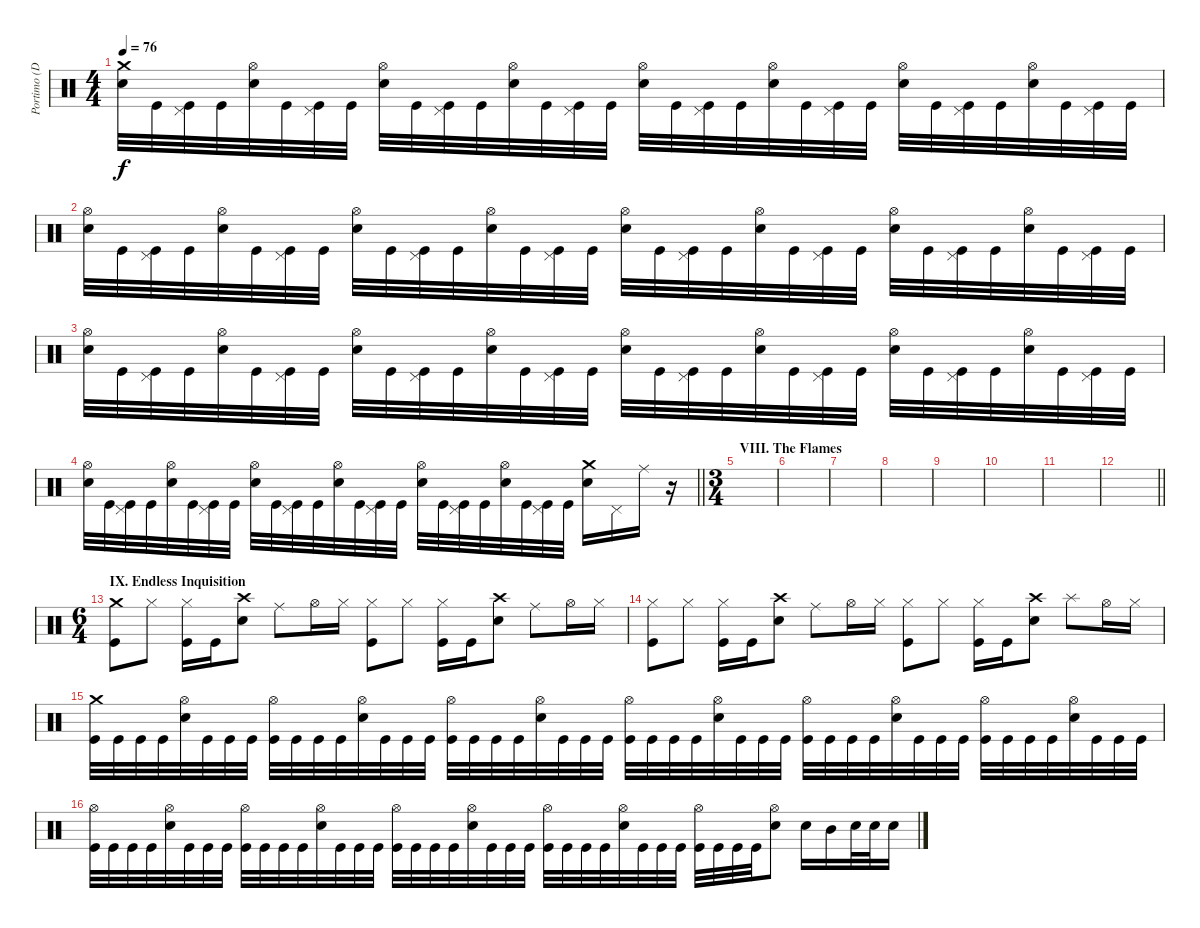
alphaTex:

\track ("Portimo (Drums)" "Portimo (D") {mute instrument percussion}
\staff {score}
\articulation defaults
\ts (4 4)
\tempo 76
\clef neutral
\ks c
("Crash medium (hit)" "Snare (hit) 2").32{dy f} "Kick (hit)".32 ("Pedal Hi-Hat (hit)" "Kick (hit)").32 "Kick (hit)".32 ("Hi-Hat (open)" "Snare (hit) 2").32 "Kick (hit)".32 ("Pedal Hi-Hat (hit)" "Kick (hit)").32 "Kick (hit)".32 ("Hi-Hat (open)" "Snare (hit) 2").32 "Kick (hit)".32 ("Pedal Hi-Hat (hit)" "Kick (hit)").32 "Kick (hit)".32 ("Hi-Hat (open)" "Snare (hit) 2").32 "Kick (hit)".32 ("Pedal Hi-Hat (hit)" "Kick (hit)").32 "Kick (hit)".32 ("Hi-Hat (open)" "Snare (hit) 2").32 "Kick (hit)".32 ("Pedal Hi-Hat (hit)" "Kick (hit)").32 "Kick (hit)".32 ("Hi-Hat (open)" "Snare (hit) 2").32 "Kick (hit)".32 ("Pedal Hi-Hat (hit)" "Kick (hit)").32 "Kick (hit)".32 ("Hi-Hat (open)" "Snare (hit) 2").32 "Kick (hit)".32 ("Pedal Hi-Hat (hit)" "Kick (hit)").32 "Kick (hit)".32 ("Hi-Hat (open)" "Snare (hit) 2").32 "Kick (hit)".32 ("Pedal Hi-Hat (hit)" "Kick (hit)").32 "Kick (hit)".32 |
("Hi-Hat (open)" "Snare (hit) 2").32 "Kick (hit)".32 ("Pedal Hi-Hat (hit)" "Kick (hit)").32 "Kick (hit)".32 ("Hi-Hat (open)" "Snare (hit) 2").32 "Kick (hit)".32 ("Pedal Hi-Hat (hit)" "Kick (hit)").32 "Kick (hit)".32 ("Hi-Hat (open)" "Snare (hit) 2").32 "Kick (hit)".32 ("Pedal Hi-Hat (hit)" "Kick (hit)").32 "Kick (hit)".32 ("Hi-Hat (open)" "Snare (hit) 2").32 "Kick (hit)".32 ("Pedal Hi-Hat (hit)" "Kick (hit)").32 "Kick (hit)".32 ("Hi-Hat (open)" "Snare (hit) 2").32 "Kick (hit)".32 ("Pedal Hi-Hat (hit)" "Kick (hit)").32 "Kick (hit)".32 ("Hi-Hat (open)" "Snare (hit) 2").32 "Kick (hit)".32 ("Pedal Hi-Hat (hit)" "Kick (hit)").32 "Kick (hit)".32 ("Hi-Hat (open)" "Snare (hit) 2").32 "Kick (hit)".32 ("Pedal Hi-Hat (hit)" "Kick (hit)").32 "Kick (hit)".32 ("Hi-Hat (open)" "Snare (hit) 2").32 "Kick (hit)".32 ("Pedal Hi-Hat (hit)" "Kick (hit)").32 "Kick (hit)".32 |
("Hi-Hat (open)" "Snare (hit) 2").32 "Kick (hit)".32 ("Pedal Hi-Hat (hit)" "Kick (hit)").32 "Kick (hit)".32 ("Hi-Hat (open)" "Snare (hit) 2").32 "Kick (hit)".32 ("Pedal Hi-Hat (hit)" "Kick (hit)").32 "Kick (hit)".32 ("Hi-Hat (open)" "Snare (hit) 2").32 "Kick (hit)".32 ("Pedal Hi-Hat (hit)" "Kick (hit)").32 "Kick (hit)".32 ("Hi-Hat (open)" "Snare (hit) 2").32 "Kick (hit)".32 ("Pedal Hi-Hat (hit)" "Kick (hit)").32 "Kick (hit)".32 ("Hi-Hat (open)" "Snare (hit) 2").32 "Kick (hit)".32 ("Pedal Hi-Hat (hit)" "Kick (hit)").32 "Kick (hit)".32 ("Hi-Hat (open)" "Snare (hit) 2").32 "Kick (hit)".32 ("Pedal Hi-Hat (hit)" "Kick (hit)").32 "Kick (hit)".32 ("Hi-Hat (open)" "Snare (hit) 2").32 "Kick (hit)".32 ("Pedal Hi-Hat (hit)" "Kick (hit)").32 "Kick (hit)".32 ("Hi-Hat (open)" "Snare (hit) 2").32 "Kick (hit)".32 ("Pedal Hi-Hat (hit)" "Kick (hit)").32 "Kick (hit)".32 |
\barLineRight lightlight
("Hi-Hat (open)" "Snare (hit) 2").32 "Kick (hit)".32 ("Pedal Hi-Hat (hit)" "Kick (hit)").32 "Kick (hit)".32 ("Hi-Hat (open)" "Snare (hit) 2").32 "Kick (hit)".32 ("Pedal Hi-Hat (hit)" "Kick (hit)").32 "Kick (hit)".32 ("Hi-Hat (open)" "Snare (hit) 2").32 "Kick (hit)".32 ("Pedal Hi-Hat (hit)" "Kick (hit)").32 "Kick (hit)".32 ("Hi-Hat (open)" "Snare (hit) 2").32 "Kick (hit)".32 ("Pedal Hi-Hat (hit)" "Kick (hit)").32 "Kick (hit)".32 ("Hi-Hat (open)" "Snare (hit) 2").32 "Kick (hit)".32 ("Pedal Hi-Hat (hit)" "Kick (hit)").32 "Kick (hit)".32 ("Hi-Hat (open)" "Snare (hit) 2").32 "Kick (hit)".32 ("Pedal Hi-Hat (hit)" "Kick (hit)").32 "Kick (hit)".32 ("Crash medium (hit)" "Snare (hit) 2").16 "Pedal Hi-Hat (hit)".16 "Ride (middle)".16 r.16 |
\ts (3 4)
\section ("" "VIII. The Flames")
|
|
|
|
|
|
|
\barLineRight lightlight
|
\ts (6 4)
\section ("" "IX. Endless Inquisition")
("Crash medium (hit)" "Kick (hit)").8 "Hi-Hat (closed)".8 ("Hi-Hat (closed)" "Kick (hit)").16 "Kick (hit)".16 ("Crash high (hit)" "Snare (hit) 2").8 "Ride (middle)".8 "Hi-Hat (open)".16 "Hi-Hat (closed)".16 ("Hi-Hat (closed)" "Kick (hit)").8 "Hi-Hat (closed)".8 ("Hi-Hat (closed)" "Kick (hit)").16 "Kick (hit)".16 ("Crash high (hit)" "Snare (hit) 2").8 "Ride (middle)".8 "Hi-Hat (open)".16 "Hi-Hat (closed)".16 |
("Hi-Hat (closed)" "Kick (hit)").8 "Hi-Hat (closed)".8 ("Hi-Hat (closed)" "Kick (hit)").16 "Kick (hit)".16 ("Crash high (hit)" "Snare (hit) 2").8 "Ride (middle)".8 "Hi-Hat (open)".16 "Hi-Hat (closed)".16 ("Hi-Hat (closed)" "Kick (hit)").8 "Hi-Hat (closed)".8 ("Hi-Hat (closed)" "Kick (hit)").16 "Kick (hit)".16 ("Crash high (hit)" "Snare (hit) 2").8 "Splash (hit)".8 "Hi-Hat (open)".16 "Hi-Hat (closed)".16 |
("Crash medium (hit)" "Kick (hit)").32 "Kick (hit)".32 "Kick (hit)".32 "Kick (hit)".32 ("Hi-Hat (open)" "Snare (hit) 2").32 "Kick (hit)".32 "Kick (hit)".32 "Kick (hit)".32 ("Hi-Hat (open)" "Kick (hit)").32 "Kick (hit)".32 "Kick (hit)".32 "Kick (hit)".32 ("Hi-Hat (open)" "Snare (hit) 2").32 "Kick (hit)".32 "Kick (hit)".32 "Kick (hit)".32 ("Hi-Hat (open)" "Kick (hit)").32 "Kick (hit)".32 "Kick (hit)".32 "Kick (hit)".32 ("Hi-Hat (open)" "Snare (hit) 2").32 "Kick (hit)".32 "Kick (hit)".32 "Kick (hit)".32 ("Hi-Hat (open)" "Kick (hit)").32 "Kick (hit)".32 "Kick (hit)".32 "Kick (hit)".32 ("Hi-Hat (open)" "Snare (hit) 2").32 "Kick (hit)".32 "Kick (hit)".32 "Kick (hit)".32 ("Hi-Hat (open)" "Kick (hit)").32 "Kick (hit)".32 "Kick (hit)".32 "Kick (hit)".32 ("Hi-Hat (open)" "Snare (hit) 2").32 "Kick (hit)".32 "Kick (hit)".32 "Kick (hit)".32 ("Hi-Hat (open)" "Kick (hit)").32 "Kick (hit)".32 "Kick (hit)".32 "Kick (hit)".32 ("Hi-Hat (open)" "Snare (hit) 2").32 "Kick (hit)".32 "Kick (hit)".32 "Kick (hit)".32 |
("Hi-Hat (open)" "Kick (hit)").32 "Kick (hit)".32 "Kick (hit)".32 "Kick (hit)".32 ("Hi-Hat (open)" "Snare (hit) 2").32 "Kick (hit)".32 "Kick (hit)".32 "Kick (hit)".32 ("Hi-Hat (open)" "Kick (hit)").32 "Kick (hit)".32 "Kick (hit)".32 "Kick (hit)".32 ("Hi-Hat (open)" "Snare (hit) 2").32 "Kick (hit)".32 "Kick (hit)".32 "Kick (hit)".32 ("Hi-Hat (open)" "Kick (hit)").32 "Kick (hit)".32 "Kick (hit)".32 "Kick (hit)".32 ("Hi-Hat (open)" "Snare (hit) 2").32 "Kick (hit)".32 "Kick (hit)".32 "Kick (hit)".32 ("Hi-Hat (open)" "Kick (hit)").32 "Kick (hit)".32 "Kick (hit)".32 "Kick (hit)".32 ("Hi-Hat (open)" "Snare (hit) 2").32 "Kick (hit)".32 "Kick (hit)".32 "Kick (hit)".32 ("Hi-Hat (open)" "Kick (hit)").32 "Kick (hit)".32 "Kick (hit)".32 "Kick (hit)".32 ("Hi-Hat (open)" "Snare (hit) 2").8 "Snare (hit) 2".16 "Mid Tom (hit)".16 "Snare (hit) 2".32 "Snare (hit) 2".32 "Snare (hit) 2".16
